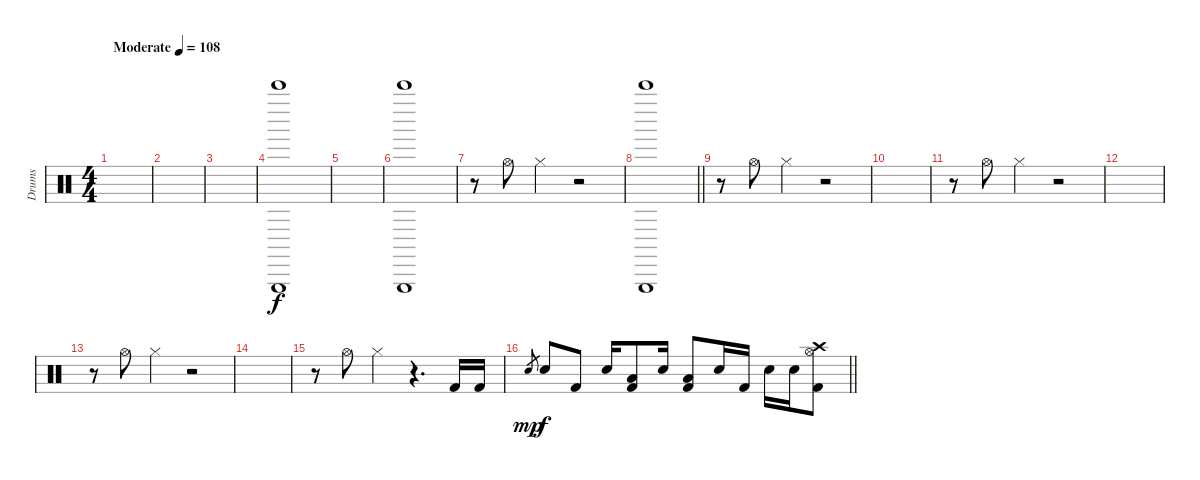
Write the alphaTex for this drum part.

\track ("Drums" "Drums") {instrument percussion}
\staff {score}
\articulation defaults
\ts (4 4)
\tempo (108 "Moderate")
\clef neutral
\ks c
|
|
|
("Triangle (hit)" "Bell Tree (hit)").1 |
|
("Triangle (hit)" "Bell Tree (hit)").1 |
r.8 "Hi-Hat (open)".8 "Hi-Hat (closed)".4 r.2 |
\barLineRight lightlight
("Triangle (hit)" "Bell Tree (hit)").1 |
r.8 "Hi-Hat (open)".8 "Hi-Hat (closed)".4 r.2 |
|
r.8 "Hi-Hat (open)".8 "Hi-Hat (closed)".4 r.2 |
|
r.8 "Hi-Hat (open)".8 "Hi-Hat (closed)".4 r.2 |
|
r.8 "Hi-Hat (open)".8 "Hi-Hat (closed)".4 r.4{d} "Kick (hit) 2".16 "Kick (hit) 2".16 |
\barLineRight lightlight "Electric Snare (hit)".8{gr dy mp} "Electric Snare (hit)".8{dy f} "Kick (hit) 2".8 "Electric Snare (hit)".16
("Low Tom (hit)" "Kick (hit) 2").8 "Electric Snare (hit)".16 ("Low Tom (hit)" "Kick (hit) 2").8 "Electric Snare (hit)".16 "Kick (hit) 2".16 "Electric Snare (hit)".16 "Electric Snare (hit)".16 ("Crash high (hit)" "Hi-Hat (open)" "Kick (hit) 2").8
